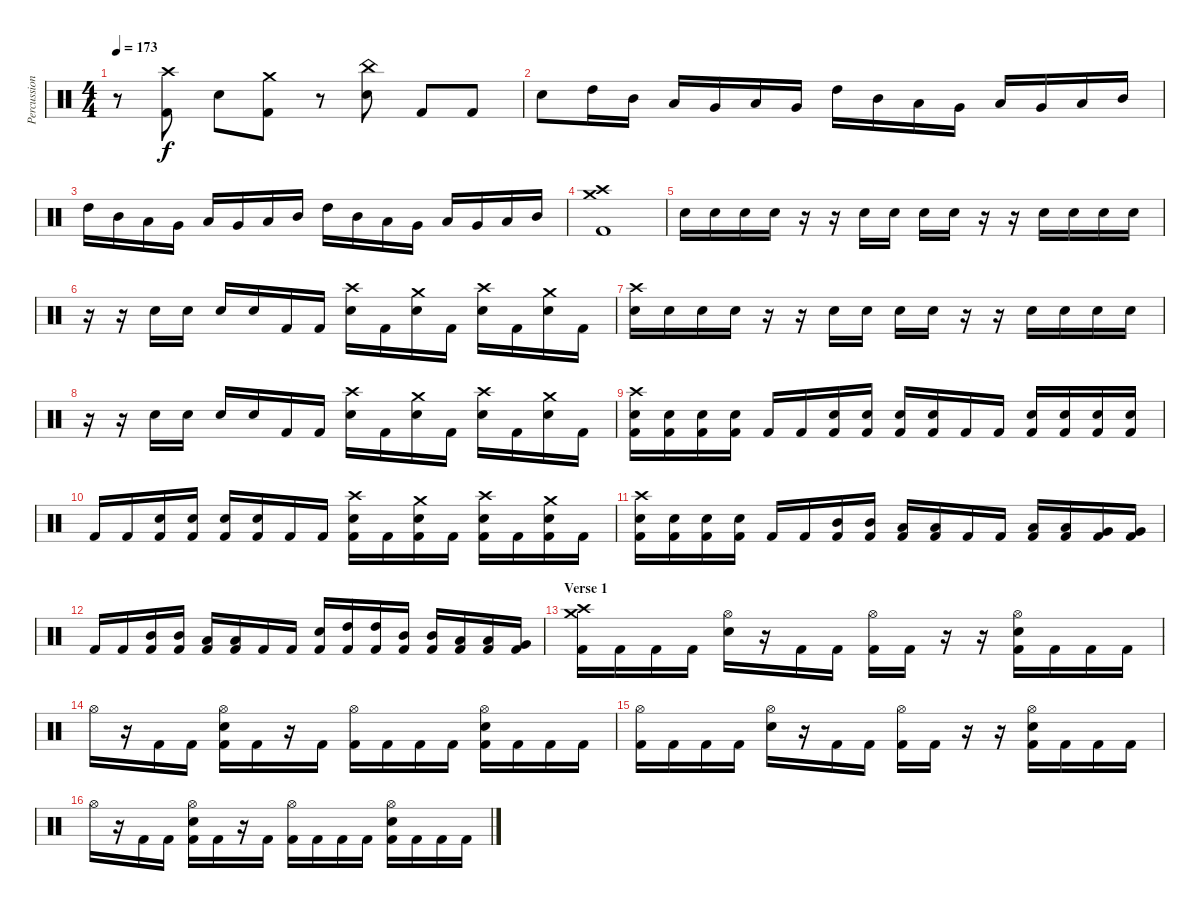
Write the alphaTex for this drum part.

\track ("Percussions" "Percussion") {instrument percussion}
\staff {score}
\articulation defaults
\ts (4 4)
\tempo 173
\clef neutral
\ks c
r.8{dy f} ("Crash high (hit)" "Kick (hit) 2").8 "Electric Snare (hit)".8 ("Crash medium (hit)" "Kick (hit) 2").8 r.8 ("China (hit)" "Electric Snare (hit)").8 "Kick (hit) 2".8 "Kick (hit) 2".8 |
"Electric Snare (hit)".8 "High Tom (hit)".16 "Mid Tom (hit)".16 "Low Tom (hit)".16 "Very Low Tom (hit)".16 "Low Floor Tom (hit)".16 "Very Low Tom (hit)".16 "High Tom (hit)".16 "Mid Tom (hit)".16 "Low Tom (hit)".16 "Very Low Tom (hit)".16 "Low Floor Tom (hit)".16 "Very Low Tom (hit)".16 "Low Tom (hit)".16 "Mid Tom (hit)".16 |
"High Tom (hit)".16 "Mid Tom (hit)".16 "Low Tom (hit)".16 "Very Low Tom (hit)".16 "Low Floor Tom (hit)".16 "Very Low Tom (hit)".16 "Low Tom (hit)".16 "Mid Tom (hit)".16 "High Tom (hit)".16 "Mid Tom (hit)".16 "Low Tom (hit)".16 "Very Low Tom (hit)".16 "Low Floor Tom (hit)".16 "Very Low Tom (hit)".16 "Low Tom (hit)".16 "Mid Tom (hit)".16 |
("Crash high (hit)" "Crash medium (hit)" "Kick (hit) 2").1 |
"Electric Snare (hit)".16 "Electric Snare (hit)".16 "Electric Snare (hit)".16 "Electric Snare (hit)".16 r.16 r.16 "Electric Snare (hit)".16 "Electric Snare (hit)".16 "Electric Snare (hit)".16 "Electric Snare (hit)".16 r.16 r.16 "Electric Snare (hit)".16 "Electric Snare (hit)".16 "Electric Snare (hit)".16 "Electric Snare (hit)".16 |
r.16 r.16 "Electric Snare (hit)".16 "Electric Snare (hit)".16 "Electric Snare (hit)".16 "Electric Snare (hit)".16 "Kick (hit) 2".16 "Kick (hit) 2".16 ("Crash high (hit)" "Electric Snare (hit)").16 "Kick (hit) 2".16 ("Crash medium (hit)" "Electric Snare (hit)").16 "Kick (hit) 2".16 ("Crash high (hit)" "Electric Snare (hit)").16 "Kick (hit) 2".16 ("Crash medium (hit)" "Electric Snare (hit)").16 "Kick (hit) 2".16 |
("Crash high (hit)" "Electric Snare (hit)").16 "Electric Snare (hit)".16 "Electric Snare (hit)".16 "Electric Snare (hit)".16 r.16 r.16 "Electric Snare (hit)".16 "Electric Snare (hit)".16 "Electric Snare (hit)".16 "Electric Snare (hit)".16 r.16 r.16 "Electric Snare (hit)".16 "Electric Snare (hit)".16 "Electric Snare (hit)".16 "Electric Snare (hit)".16 |
r.16 r.16 "Electric Snare (hit)".16 "Electric Snare (hit)".16 "Electric Snare (hit)".16 "Electric Snare (hit)".16 "Kick (hit) 2".16 "Kick (hit) 2".16 ("Crash high (hit)" "Electric Snare (hit)").16 "Kick (hit) 2".16 ("Crash medium (hit)" "Electric Snare (hit)").16 "Kick (hit) 2".16 ("Crash high (hit)" "Electric Snare (hit)").16 "Kick (hit) 2".16 ("Crash medium (hit)" "Electric Snare (hit)").16 "Kick (hit) 2".16 |
("Crash high (hit)" "Electric Snare (hit)" "Kick (hit) 2").16 ("Electric Snare (hit)" "Kick (hit) 2").16 ("Electric Snare (hit)" "Kick (hit) 2").16 ("Electric Snare (hit)" "Kick (hit) 2").16 "Kick (hit) 2".16 "Kick (hit) 2".16 ("Electric Snare (hit)" "Kick (hit) 2").16 ("Electric Snare (hit)" "Kick (hit) 2").16 ("Electric Snare (hit)" "Kick (hit) 2").16 ("Electric Snare (hit)" "Kick (hit) 2").16 "Kick (hit) 2".16 "Kick (hit) 2".16 ("Electric Snare (hit)" "Kick (hit) 2").16 ("Electric Snare (hit)" "Kick (hit) 2").16 ("Electric Snare (hit)" "Kick (hit) 2").16 ("Electric Snare (hit)" "Kick (hit) 2").16 |
"Kick (hit) 2".16 "Kick (hit) 2".16 ("Electric Snare (hit)" "Kick (hit) 2").16 ("Electric Snare (hit)" "Kick (hit) 2").16 ("Electric Snare (hit)" "Kick (hit) 2").16 ("Electric Snare (hit)" "Kick (hit) 2").16 "Kick (hit) 2".16 "Kick (hit) 2".16 ("Crash high (hit)" "Electric Snare (hit)" "Kick (hit) 2").16 "Kick (hit) 2".16 ("Crash medium (hit)" "Electric Snare (hit)" "Kick (hit) 2").16 "Kick (hit) 2".16 ("Crash high (hit)" "Electric Snare (hit)" "Kick (hit) 2").16 "Kick (hit) 2".16 ("Crash medium (hit)" "Electric Snare (hit)" "Kick (hit) 2").16 "Kick (hit) 2".16 |
("Crash high (hit)" "Electric Snare (hit)" "Kick (hit) 2").16 ("Electric Snare (hit)" "Kick (hit) 2").16 ("Electric Snare (hit)" "Kick (hit) 2").16 ("Electric Snare (hit)" "Kick (hit) 2").16 "Kick (hit) 2".16 "Kick (hit) 2".16 ("Mid Tom (hit)" "Kick (hit) 2").16 ("Mid Tom (hit)" "Kick (hit) 2").16 ("Low Tom (hit)" "Kick (hit) 2").16 ("Low Tom (hit)" "Kick (hit) 2").16 "Kick (hit) 2".16 "Kick (hit) 2".16 ("Low Tom (hit)" "Kick (hit) 2").16 ("Low Tom (hit)" "Kick (hit) 2").16 ("Very Low Tom (hit)" "Kick (hit) 2").16 ("Very Low Tom (hit)" "Kick (hit) 2").16 |
"Kick (hit) 2".16 "Kick (hit) 2".16 ("Mid Tom (hit)" "Kick (hit) 2").16 ("Mid Tom (hit)" "Kick (hit) 2").16 ("Low Tom (hit)" "Kick (hit) 2").16 ("Low Tom (hit)" "Kick (hit) 2").16 "Kick (hit) 2".16 "Kick (hit) 2".16 ("Electric Snare (hit)" "Kick (hit) 2").16 ("High Tom (hit)" "Kick (hit) 2").16 ("High Tom (hit)" "Kick (hit) 2").16 ("Mid Tom (hit)" "Kick (hit) 2").16 ("Mid Tom (hit)" "Kick (hit) 2").16 ("Low Tom (hit)" "Kick (hit) 2").16 ("Low Tom (hit)" "Kick (hit) 2").16 ("Very Low Tom (hit)" "Kick (hit) 2").16 |
\section ("" "Verse 1")
("Crash high (hit)" "Crash medium (hit)" "Kick (hit) 2").16 "Kick (hit) 2".16 "Kick (hit) 2".16 "Kick (hit) 2".16 ("Hi-Hat (open)" "Electric Snare (hit)").16 r.16 "Kick (hit) 2".16 "Kick (hit) 2".16 ("Hi-Hat (open)" "Kick (hit) 2").16 "Kick (hit) 2".16 r.16 r.16 ("Hi-Hat (open)" "Electric Snare (hit)" "Kick (hit) 2").16 "Kick (hit) 2".16 "Kick (hit) 2".16 "Kick (hit) 2".16 |
"Hi-Hat (open)".16 r.16 "Kick (hit) 2".16 "Kick (hit) 2".16 ("Hi-Hat (open)" "Electric Snare (hit)" "Kick (hit) 2").16 "Kick (hit) 2".16 r.16 "Kick (hit) 2".16 ("Hi-Hat (open)" "Kick (hit) 2").16 "Kick (hit) 2".16 "Kick (hit) 2".16 "Kick (hit) 2".16 ("Hi-Hat (open)" "Electric Snare (hit)" "Kick (hit) 2").16 "Kick (hit) 2".16 "Kick (hit) 2".16 "Kick (hit) 2".16 |
("Hi-Hat (open)" "Kick (hit) 2").16 "Kick (hit) 2".16 "Kick (hit) 2".16 "Kick (hit) 2".16 ("Hi-Hat (open)" "Electric Snare (hit)").16 r.16 "Kick (hit) 2".16 "Kick (hit) 2".16 ("Hi-Hat (open)" "Kick (hit) 2").16 "Kick (hit) 2".16 r.16 r.16 ("Hi-Hat (open)" "Electric Snare (hit)" "Kick (hit) 2").16 "Kick (hit) 2".16 "Kick (hit) 2".16 "Kick (hit) 2".16 |
"Hi-Hat (open)".16 r.16 "Kick (hit) 2".16 "Kick (hit) 2".16 ("Hi-Hat (open)" "Electric Snare (hit)" "Kick (hit) 2").16 "Kick (hit) 2".16 r.16 "Kick (hit) 2".16 ("Hi-Hat (open)" "Kick (hit) 2").16 "Kick (hit) 2".16 "Kick (hit) 2".16 "Kick (hit) 2".16 ("Hi-Hat (open)" "Electric Snare (hit)" "Kick (hit) 2").16 "Kick (hit) 2".16 "Kick (hit) 2".16 "Kick (hit) 2".16
